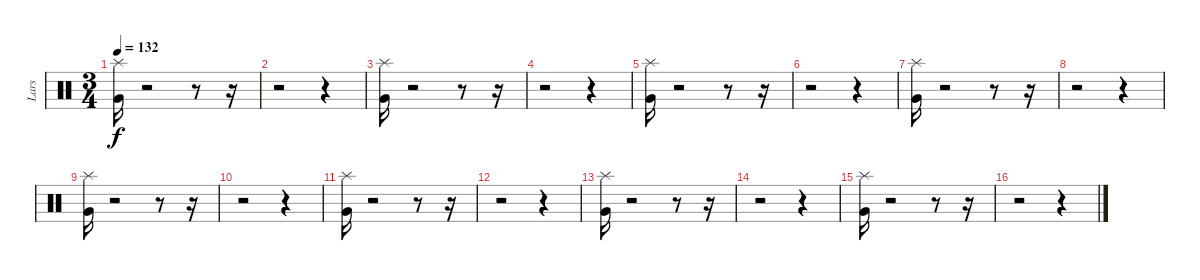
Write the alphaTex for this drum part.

\track ("Lars" "Lars") {instrument percussion}
\staff {score}
\articulation defaults
\ts (3 4)
\tempo 132
\clef neutral
\ks c
("Very Low Tom (hit)" "Splash (hit)").16{dy f} r.2 r.8 r.16 |
r.2 r.4 |
("Very Low Tom (hit)" "Splash (hit)").16 r.2 r.8 r.16 |
r.2 r.4 |
("Very Low Tom (hit)" "Splash (hit)").16 r.2 r.8 r.16 |
r.2 r.4 |
("Splash (hit)" "Very Low Tom (hit)").16 r.2 r.8 r.16 |
r.2 r.4 |
("Splash (hit)" "Very Low Tom (hit)").16 r.2 r.8 r.16 |
r.2 r.4 |
("Very Low Tom (hit)" "Splash (hit)").16 r.2 r.8 r.16 |
r.2 r.4 |
("Very Low Tom (hit)" "Splash (hit)").16 r.2 r.8 r.16 |
r.2 r.4 |
("Very Low Tom (hit)" "Splash (hit)").16 r.2 r.8 r.16 |
r.2 r.4
